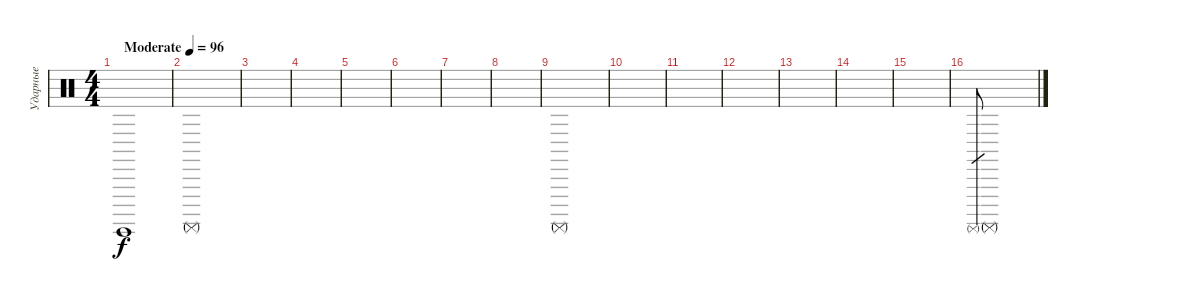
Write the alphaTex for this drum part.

\track ("Ударные" "Ударные") {solo instrument percussion}
\staff {score}
\articulation defaults
\ts (4 4)
\tempo (96 "Moderate")
\clef neutral
\ks c "Surdo (hit)".1{dy f}
|
"Surdo (mute)".1 |
|
|
|
|
|
|
"Surdo (mute)".1 |
|
|
|
|
|
|
"Surdo (mute)".8{gr} "Surdo (mute)".1
